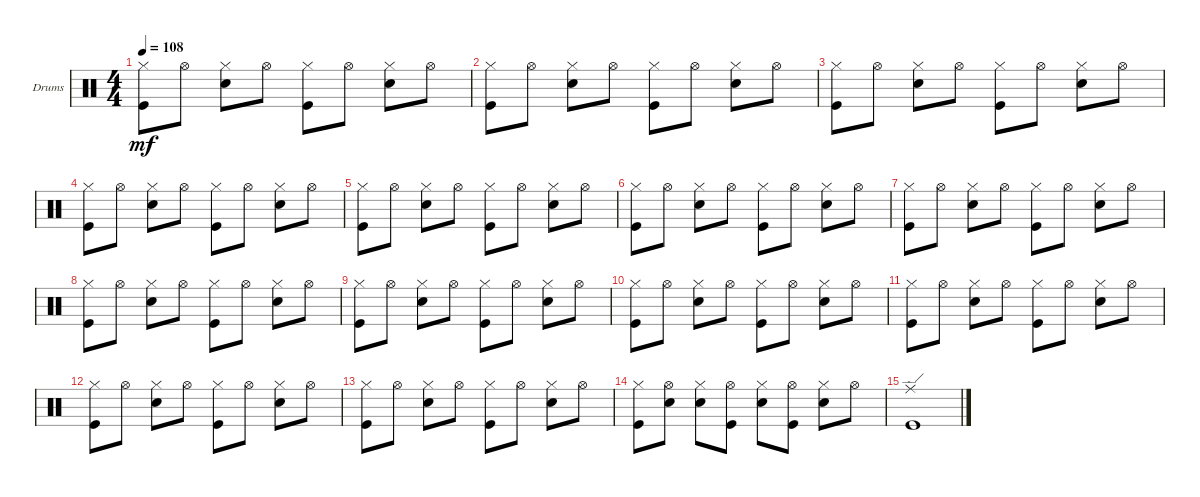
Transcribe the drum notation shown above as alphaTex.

\defaultSystemsLayout 4
\bracketExtendMode groupsimilarinstruments
\firstSystemTrackNameOrientation horizontal
\otherSystemsTrackNameOrientation horizontal
\track ("Drumkit" "Drums") {instrument percussion}
\staff {score}
\articulation defaults
\ts (4 4)
\tempo 108
\clef neutral
\ks c
("Hi-Hat (closed)" "Kick (hit)").8{dy mf} "Hi-Hat (open)".8 ("Hi-Hat (closed)" "Snare (hit) 2").8 "Hi-Hat (open)".8 ("Hi-Hat (closed)" "Kick (hit)").8 "Hi-Hat (open)".8 ("Hi-Hat (closed)" "Snare (hit) 2").8 "Hi-Hat (open)".8 |
("Hi-Hat (closed)" "Kick (hit)").8 "Hi-Hat (open)".8 ("Hi-Hat (closed)" "Snare (hit) 2").8 "Hi-Hat (open)".8 ("Hi-Hat (closed)" "Kick (hit)").8 "Hi-Hat (open)".8 ("Hi-Hat (closed)" "Snare (hit) 2").8 "Hi-Hat (open)".8 |
("Hi-Hat (closed)" "Kick (hit)").8 "Hi-Hat (open)".8 ("Hi-Hat (closed)" "Snare (hit) 2").8 "Hi-Hat (open)".8 ("Hi-Hat (closed)" "Kick (hit)").8 "Hi-Hat (open)".8 ("Hi-Hat (closed)" "Snare (hit) 2").8 "Hi-Hat (open)".8 |
("Hi-Hat (closed)" "Kick (hit)").8 "Hi-Hat (open)".8 ("Hi-Hat (closed)" "Snare (hit) 2").8 "Hi-Hat (open)".8 ("Hi-Hat (closed)" "Kick (hit)").8 "Hi-Hat (open)".8 ("Hi-Hat (closed)" "Snare (hit) 2").8 "Hi-Hat (open)".8 |
("Hi-Hat (closed)" "Kick (hit)").8 "Hi-Hat (open)".8 ("Hi-Hat (closed)" "Snare (hit) 2").8 "Hi-Hat (open)".8 ("Hi-Hat (closed)" "Kick (hit)").8 "Hi-Hat (open)".8 ("Hi-Hat (closed)" "Snare (hit) 2").8 "Hi-Hat (open)".8 |
("Hi-Hat (closed)" "Kick (hit)").8 "Hi-Hat (open)".8 ("Hi-Hat (closed)" "Snare (hit) 2").8 "Hi-Hat (open)".8 ("Hi-Hat (closed)" "Kick (hit)").8 "Hi-Hat (open)".8 ("Hi-Hat (closed)" "Snare (hit) 2").8 "Hi-Hat (open)".8 |
("Hi-Hat (closed)" "Kick (hit)").8 "Hi-Hat (open)".8 ("Hi-Hat (closed)" "Snare (hit) 2").8 "Hi-Hat (open)".8 ("Hi-Hat (closed)" "Kick (hit)").8 "Hi-Hat (open)".8 ("Hi-Hat (closed)" "Snare (hit) 2").8 "Hi-Hat (open)".8 |
("Hi-Hat (closed)" "Kick (hit)").8 "Hi-Hat (open)".8 ("Hi-Hat (closed)" "Snare (hit) 2").8 "Hi-Hat (open)".8 ("Hi-Hat (closed)" "Kick (hit)").8 "Hi-Hat (open)".8 ("Hi-Hat (closed)" "Snare (hit) 2").8 "Hi-Hat (open)".8 |
("Hi-Hat (closed)" "Kick (hit)").8 "Hi-Hat (open)".8 ("Hi-Hat (closed)" "Snare (hit) 2").8 "Hi-Hat (open)".8 ("Hi-Hat (closed)" "Kick (hit)").8 "Hi-Hat (open)".8 ("Hi-Hat (closed)" "Snare (hit) 2").8 "Hi-Hat (open)".8 |
("Hi-Hat (closed)" "Kick (hit)").8 "Hi-Hat (open)".8 ("Hi-Hat (closed)" "Snare (hit) 2").8 "Hi-Hat (open)".8 ("Hi-Hat (closed)" "Kick (hit)").8 "Hi-Hat (open)".8 ("Hi-Hat (closed)" "Snare (hit) 2").8 "Hi-Hat (open)".8 |
("Hi-Hat (closed)" "Kick (hit)").8 "Hi-Hat (open)".8 ("Hi-Hat (closed)" "Snare (hit) 2").8 "Hi-Hat (open)".8 ("Hi-Hat (closed)" "Kick (hit)").8 "Hi-Hat (open)".8 ("Hi-Hat (closed)" "Snare (hit) 2").8 "Hi-Hat (open)".8 |
("Hi-Hat (closed)" "Kick (hit)").8 "Hi-Hat (open)".8 ("Hi-Hat (closed)" "Snare (hit) 2").8 "Hi-Hat (open)".8 ("Hi-Hat (closed)" "Kick (hit)").8 "Hi-Hat (open)".8 ("Hi-Hat (closed)" "Snare (hit) 2").8 "Hi-Hat (open)".8 |
("Hi-Hat (closed)" "Kick (hit)").8 "Hi-Hat (open)".8 ("Hi-Hat (closed)" "Snare (hit) 2").8 "Hi-Hat (open)".8 ("Hi-Hat (closed)" "Kick (hit)").8 "Hi-Hat (open)".8 ("Hi-Hat (closed)" "Snare (hit) 2").8 "Hi-Hat (open)".8 |
("Hi-Hat (closed)" "Kick (hit)").8 ("Hi-Hat (open)" "Snare (hit) 2").8 ("Hi-Hat (closed)" "Snare (hit) 2").8 ("Hi-Hat (open)" "Kick (hit)").8 ("Hi-Hat (closed)" "Snare (hit) 2").8 ("Hi-Hat (open)" "Kick (hit)").8 ("Hi-Hat (closed)" "Snare (hit) 2").8 "Hi-Hat (open)".8 |
("Kick (hit)" "Ride (edge)").1
